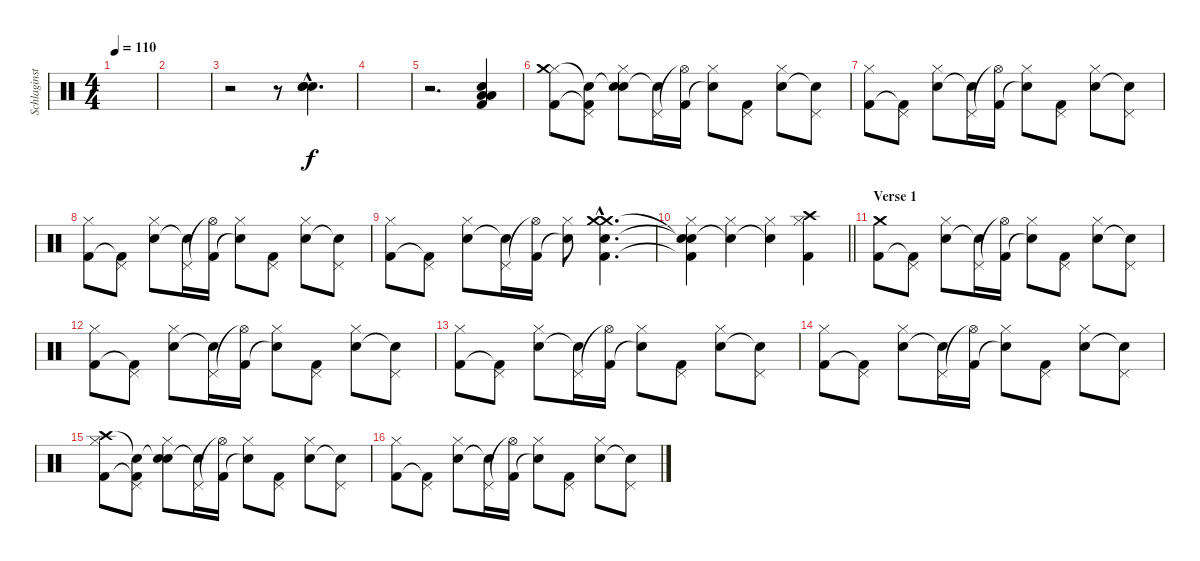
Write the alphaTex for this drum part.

\track ("Schlaginstrumente - Auswahl" "Schlaginst") {instrument percussion}
\staff {score}
\articulation defaults
\ts (4 4)
\tempo 110
\clef neutral
\ks c
|
|
r.2 r.8 ("Electric Snare (hit)"{hac} "Snare (hit) 2"{hac} "Snare (hit) 2"{hac}).4{d} |
|
r.2{d} ("Low Floor Tom (hit)" "Low Tom (hit)" "Snare (hit) 2" "Kick (hit) 2").4{dy f} |
("Hi-Hat (closed)" "Crash medium (hit)" "Kick (hit) 2").8 ("Pedal Hi-Hat (hit)" "Snare (hit)"{t} "Kick (hit) 2"{t}).8 ("Hi-Hat (closed)" "Snare (hit)"{t} "Snare (hit) 2").8 ("Pedal Hi-Hat (hit)" "Snare (hit) 2"{t}).16 ("Hi-Hat (open)"{t} "Kick (hit) 2").16 ("Hi-Hat (closed)" "Snare (hit)"{t}).8 ("Pedal Hi-Hat (hit)" "Kick (hit) 2").8 ("Hi-Hat (closed)" "Snare (hit) 2").8 ("Pedal Hi-Hat (hit)" "Snare (hit) 2"{t}).8 |
("Hi-Hat (closed)" "Kick (hit) 2").8 ("Pedal Hi-Hat (hit)" "Kick (hit) 2"{t}).8 ("Hi-Hat (closed)" "Snare (hit) 2").8 ("Pedal Hi-Hat (hit)" "Snare (hit) 2"{t}).16 ("Hi-Hat (open)"{t} "Kick (hit) 2").16 ("Hi-Hat (closed)" "Snare (hit)"{t}).8 ("Pedal Hi-Hat (hit)" "Kick (hit) 2").8 ("Hi-Hat (closed)" "Snare (hit) 2").8 ("Pedal Hi-Hat (hit)" "Snare (hit) 2"{t}).8 |
("Hi-Hat (closed)" "Kick (hit) 2").8 ("Pedal Hi-Hat (hit)" "Kick (hit) 2"{t}).8 ("Hi-Hat (closed)" "Snare (hit) 2").8 ("Pedal Hi-Hat (hit)" "Snare (hit) 2"{t}).16 ("Hi-Hat (open)"{t} "Kick (hit) 2").16 ("Hi-Hat (closed)" "Snare (hit)"{t}).8 ("Pedal Hi-Hat (hit)" "Kick (hit) 2").8 ("Hi-Hat (closed)" "Snare (hit) 2").8 ("Pedal Hi-Hat (hit)" "Snare (hit) 2"{t}).8 |
("Hi-Hat (closed)" "Kick (hit) 2").8 ("Pedal Hi-Hat (hit)" "Kick (hit) 2"{t}).8 ("Hi-Hat (closed)" "Snare (hit) 2").8 ("Pedal Hi-Hat (hit)" "Snare (hit) 2"{t}).16 ("Hi-Hat (open)"{t} "Kick (hit) 2").16 ("Hi-Hat (closed)" "Snare (hit)"{t}).8 ("Crash medium (hit)"{hac} "Crash medium (hit)"{hac} "Snare (hit) 2"{hac} "Kick (hit) 2"{hac}).4{d} |
\barLineRight lightlight
("Hi-Hat (closed)" "Snare (hit)"{t} "Snare (hit) 2"{t} "Kick (hit) 2"{t}).4 ("Hi-Hat (closed)" "Snare (hit)"{t}).4 ("Hi-Hat (closed)" "Snare (hit)"{t}).4 ("Hi-Hat (closed)" "Crash high (hit)" "Kick (hit) 2").4 |
\section ("" "Verse 1")
("Crash medium (hit)" "Kick (hit) 2").8 ("Pedal Hi-Hat (hit)" "Kick (hit) 2"{t}).8 ("Hi-Hat (closed)" "Snare (hit) 2").8 ("Pedal Hi-Hat (hit)" "Snare (hit) 2"{t}).16 ("Hi-Hat (open)"{t} "Kick (hit) 2").16 ("Hi-Hat (closed)" "Snare (hit)"{t}).8 ("Pedal Hi-Hat (hit)" "Kick (hit) 2").8 ("Hi-Hat (closed)" "Snare (hit) 2").8 ("Pedal Hi-Hat (hit)" "Snare (hit) 2"{t}).8 |
("Hi-Hat (closed)" "Kick (hit) 2").8 ("Pedal Hi-Hat (hit)" "Kick (hit) 2"{t}).8 ("Hi-Hat (closed)" "Snare (hit) 2").8 ("Pedal Hi-Hat (hit)" "Snare (hit) 2"{t}).16 ("Hi-Hat (open)"{t} "Kick (hit) 2").16 ("Hi-Hat (closed)" "Snare (hit)"{t}).8 ("Pedal Hi-Hat (hit)" "Kick (hit) 2").8 ("Hi-Hat (closed)" "Snare (hit) 2").8 ("Pedal Hi-Hat (hit)" "Snare (hit) 2"{t}).8 |
("Hi-Hat (closed)" "Kick (hit) 2").8 ("Pedal Hi-Hat (hit)" "Kick (hit) 2"{t}).8 ("Hi-Hat (closed)" "Snare (hit) 2").8 ("Pedal Hi-Hat (hit)" "Snare (hit) 2"{t}).16 ("Hi-Hat (open)"{t} "Kick (hit) 2").16 ("Hi-Hat (closed)" "Snare (hit)"{t}).8 ("Pedal Hi-Hat (hit)" "Kick (hit) 2").8 ("Hi-Hat (closed)" "Snare (hit) 2").8 ("Pedal Hi-Hat (hit)" "Snare (hit) 2"{t}).8 |
("Hi-Hat (closed)" "Kick (hit) 2").8 ("Pedal Hi-Hat (hit)" "Kick (hit) 2"{t}).8 ("Hi-Hat (closed)" "Snare (hit) 2").8 ("Pedal Hi-Hat (hit)" "Snare (hit) 2"{t}).16 ("Hi-Hat (open)"{t} "Kick (hit) 2").16 ("Hi-Hat (closed)" "Snare (hit)"{t}).8 ("Pedal Hi-Hat (hit)" "Kick (hit) 2").8 ("Hi-Hat (closed)" "Snare (hit) 2").8 ("Pedal Hi-Hat (hit)" "Snare (hit) 2"{t}).8 |
("Hi-Hat (closed)" "Crash high (hit)" "Kick (hit) 2").8 ("Pedal Hi-Hat (hit)" "Snare (hit)"{t} "Kick (hit) 2"{t}).8 ("Hi-Hat (closed)" "Snare (hit)"{t} "Snare (hit) 2").8 ("Pedal Hi-Hat (hit)" "Snare (hit) 2"{t}).16 ("Hi-Hat (open)"{t} "Kick (hit) 2").16 ("Hi-Hat (closed)" "Snare (hit)"{t}).8 ("Pedal Hi-Hat (hit)" "Kick (hit) 2").8 ("Hi-Hat (closed)" "Snare (hit) 2").8 ("Pedal Hi-Hat (hit)" "Snare (hit) 2"{t}).8 |
("Hi-Hat (closed)" "Kick (hit) 2").8 ("Pedal Hi-Hat (hit)" "Kick (hit) 2"{t}).8 ("Hi-Hat (closed)" "Snare (hit) 2").8 ("Pedal Hi-Hat (hit)" "Snare (hit) 2"{t}).16 ("Hi-Hat (open)"{t} "Kick (hit) 2").16 ("Hi-Hat (closed)" "Snare (hit)"{t}).8 ("Pedal Hi-Hat (hit)" "Kick (hit) 2").8 ("Hi-Hat (closed)" "Snare (hit) 2").8 ("Pedal Hi-Hat (hit)" "Snare (hit) 2"{t}).8
